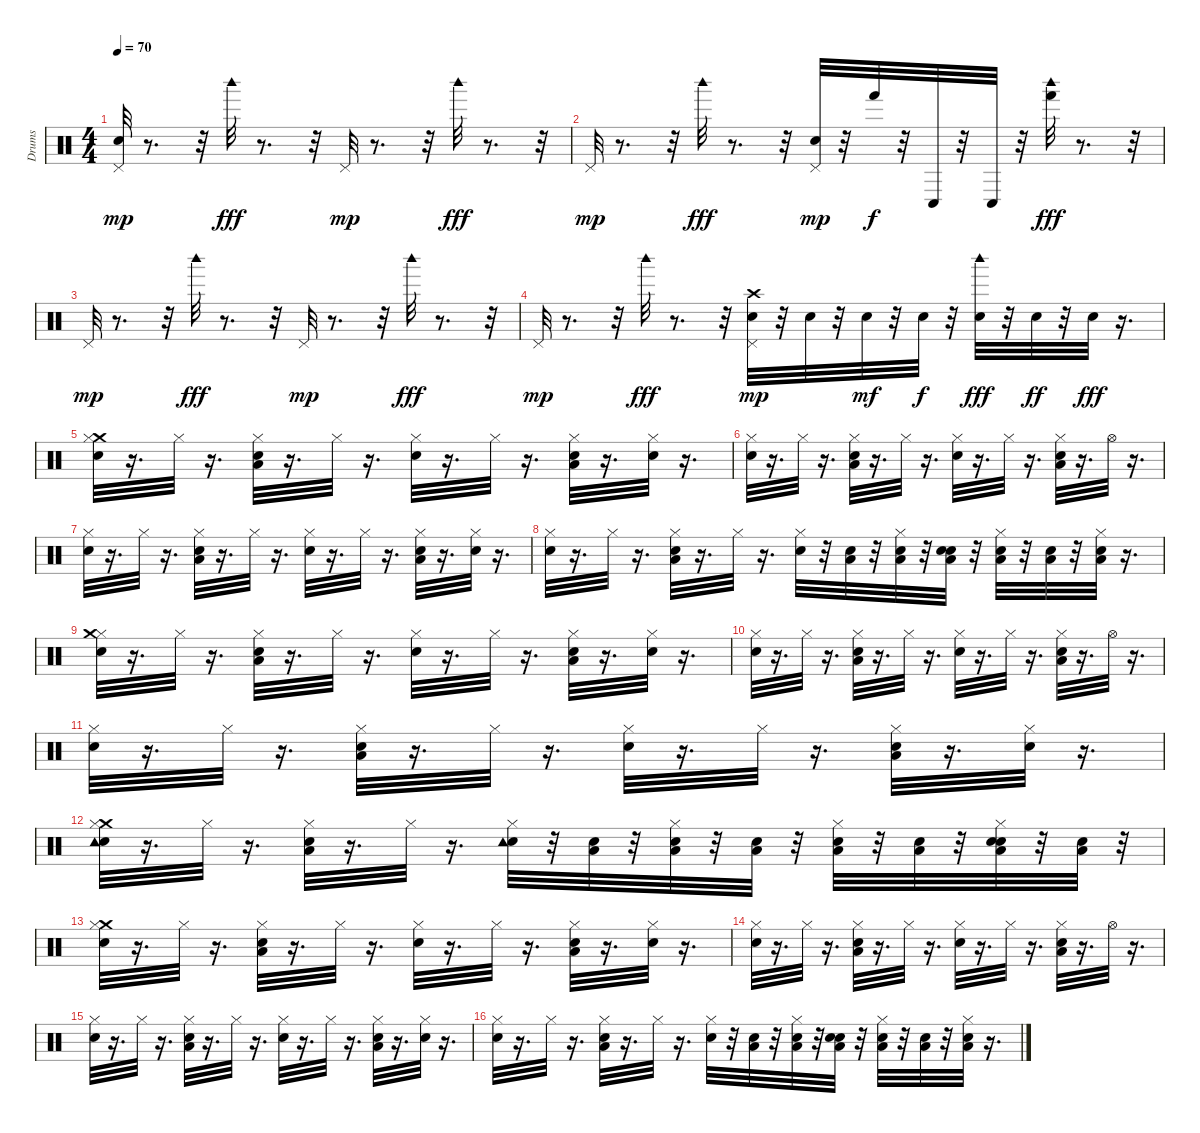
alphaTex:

\track ("Drums" "Drums") {instrument percussion}
\staff {score}
\articulation defaults
\ts (4 4)
\tempo 70
\clef neutral
\ks c
("Snare (hit)" "Pedal Hi-Hat (hit)").32{dy mp} r.8{d} r.32 "Woodblock high (hit)".32{dy fff} r.8{d} r.32 "Pedal Hi-Hat (hit)".32{dy mp} r.8{d} r.32 "Woodblock high (hit)".32{dy fff} r.8{d} r.32 |
"Pedal Hi-Hat (hit)".32{dy mp} r.8{d} r.32 "Woodblock high (hit)".32{dy fff} r.8{d} r.32 ("Snare (hit)" "Pedal Hi-Hat (hit)").32{dy mp} r.32 "Hand (hit)".32{dy f} r.32 "Conga low (hit)".32 r.32 "Conga low (hit)".32 r.32 ("Woodblock high (hit)" "Hand (hit)").32{dy fff} r.8{d} r.32 |
"Pedal Hi-Hat (hit)".32{dy mp} r.8{d} r.32 "Woodblock high (hit)".32{dy fff} r.8{d} r.32 "Pedal Hi-Hat (hit)".32{dy mp} r.8{d} r.32 "Woodblock high (hit)".32{dy fff} r.8{d} r.32 |
"Pedal Hi-Hat (hit)".32{dy mp} r.8{d} r.32 "Woodblock high (hit)".32{dy fff} r.8{d} r.32 ("Crash high (hit)" "Pedal Hi-Hat (hit)" "Snare (hit)").32{dy mp} r.32 "Snare (hit) 2".32 r.32 "Snare (hit) 2".32{dy mf} r.32 "Snare (hit) 2".32{dy f} r.32 ("Woodblock high (hit)" "Snare (hit) 2").32{dy fff} r.32 "Snare (hit) 2".32{dy ff} r.32 "Snare (hit) 2".32{dy fff} r.16{d} |
("Snare (hit)" "Crash medium (hit)" "Hi-Hat (closed)").32 r.16{d} "Hi-Hat (closed)".32 r.16{d} ("Snare (hit) 2" "Low Floor Tom (hit)" "Hi-Hat (closed)").32 r.16{d} "Hi-Hat (closed)".32 r.16{d} ("Hi-Hat (closed)" "Snare (hit)").32 r.16{d} "Hi-Hat (closed)".32 r.16{d} ("Snare (hit) 2" "Low Floor Tom (hit)" "Hi-Hat (closed)").32 r.16{d} ("Hi-Hat (closed)" "Snare (hit)").32 r.16{d} |
("Snare (hit)" "Hi-Hat (closed)").32 r.16{d} "Hi-Hat (closed)".32 r.16{d} ("Snare (hit) 2" "Low Floor Tom (hit)" "Hi-Hat (closed)").32 r.16{d} "Hi-Hat (closed)".32 r.16{d} ("Snare (hit)" "Hi-Hat (closed)").32 r.16{d} "Hi-Hat (closed)".32 r.16{d} ("Snare (hit) 2" "Low Floor Tom (hit)" "Hi-Hat (closed)").32 r.16{d} "Hi-Hat (open)".32 r.16{d} |
("Snare (hit)" "Hi-Hat (closed)").32 r.16{d} "Hi-Hat (closed)".32 r.16{d} ("Snare (hit) 2" "Low Floor Tom (hit)" "Hi-Hat (closed)").32 r.16{d} "Hi-Hat (closed)".32 r.16{d} ("Hi-Hat (closed)" "Snare (hit)").32 r.16{d} "Hi-Hat (closed)".32 r.16{d} ("Snare (hit) 2" "Low Floor Tom (hit)" "Hi-Hat (closed)").32 r.16{d} ("Snare (hit)" "Hi-Hat (closed)").32 r.16{d} |
("Snare (hit)" "Hi-Hat (closed)").32 r.16{d} "Hi-Hat (closed)".32 r.16{d} ("Snare (hit) 2" "Low Floor Tom (hit)" "Hi-Hat (closed)").32 r.16{d} "Hi-Hat (closed)".32 r.16{d} ("Snare (hit)" "Hi-Hat (closed)").32 r.32 ("Snare (hit) 2" "Low Floor Tom (hit)").32 r.32 ("Hi-Hat (closed)" "Snare (hit) 2" "Low Floor Tom (hit)").32 r.32 ("Snare (hit)" "Snare (hit) 2" "Low Floor Tom (hit)").32 r.32 ("Snare (hit) 2" "Low Floor Tom (hit)" "Hi-Hat (closed)").32 r.32 ("Snare (hit) 2" "Low Floor Tom (hit)").32 r.32 ("Hi-Hat (closed)" "Snare (hit) 2" "Low Floor Tom (hit)").32 r.16{d} |
("Hi-Hat (closed)" "Crash medium (hit)" "Snare (hit)").32 r.16{d} "Hi-Hat (closed)".32 r.16{d} ("Snare (hit) 2" "Low Floor Tom (hit)" "Hi-Hat (closed)").32 r.16{d} "Hi-Hat (closed)".32 r.16{d} ("Hi-Hat (closed)" "Snare (hit)").32 r.16{d} "Hi-Hat (closed)".32 r.16{d} ("Snare (hit) 2" "Low Floor Tom (hit)" "Hi-Hat (closed)").32 r.16{d} ("Hi-Hat (closed)" "Snare (hit)").32 r.16{d} |
("Snare (hit)" "Hi-Hat (closed)").32 r.16{d} "Hi-Hat (closed)".32 r.16{d} ("Snare (hit) 2" "Low Floor Tom (hit)" "Hi-Hat (closed)").32 r.16{d} "Hi-Hat (closed)".32 r.16{d} ("Snare (hit)" "Hi-Hat (closed)").32 r.16{d} "Hi-Hat (closed)".32 r.16{d} ("Snare (hit) 2" "Low Floor Tom (hit)" "Hi-Hat (closed)").32 r.16{d} "Hi-Hat (open)".32 r.16{d} |
("Snare (hit)" "Hi-Hat (closed)").32 r.16{d} "Hi-Hat (closed)".32 r.16{d} ("Snare (hit) 2" "Low Floor Tom (hit)" "Hi-Hat (closed)").32 r.16{d} "Hi-Hat (closed)".32 r.16{d} ("Hi-Hat (closed)" "Snare (hit)").32 r.16{d} "Hi-Hat (closed)".32 r.16{d} ("Hi-Hat (closed)" "Snare (hit) 2" "Low Floor Tom (hit)").32 r.16{d} ("Snare (hit)" "Hi-Hat (closed)").32 r.16{d} |
("Snare (hit)" "Crash medium (hit)" "Hi-Hat (closed)" "Tambourine (hit)").32 r.16{d} "Hi-Hat (closed)".32 r.16{d} ("Snare (hit) 2" "Low Floor Tom (hit)" "Hi-Hat (closed)").32 r.16{d} "Hi-Hat (closed)".32 r.16{d} ("Hi-Hat (closed)" "Snare (hit)" "Tambourine (hit)").32 r.32 ("Low Floor Tom (hit)" "Snare (hit) 2").32 r.32 ("Snare (hit) 2" "Low Floor Tom (hit)" "Hi-Hat (closed)").32 r.32 ("Snare (hit) 2" "Low Floor Tom (hit)").32 r.32 ("Snare (hit) 2" "Low Floor Tom (hit)" "Hi-Hat (closed)").32 r.32 ("Snare (hit) 2" "Low Floor Tom (hit)").32 r.32 ("Hi-Hat (closed)" "Snare (hit)" "Snare (hit) 2" "Low Floor Tom (hit)").32 r.32 ("Low Floor Tom (hit)" "Snare (hit) 2").32 r.32 |
("Snare (hit)" "Crash medium (hit)" "Hi-Hat (closed)").32 r.16{d} "Hi-Hat (closed)".32 r.16{d} ("Snare (hit) 2" "Low Floor Tom (hit)" "Hi-Hat (closed)").32 r.16{d} "Hi-Hat (closed)".32 r.16{d} ("Hi-Hat (closed)" "Snare (hit)").32 r.16{d} "Hi-Hat (closed)".32 r.16{d} ("Snare (hit) 2" "Low Floor Tom (hit)" "Hi-Hat (closed)").32 r.16{d} ("Hi-Hat (closed)" "Snare (hit)").32 r.16{d} |
("Snare (hit)" "Hi-Hat (closed)").32 r.16{d} "Hi-Hat (closed)".32 r.16{d} ("Snare (hit) 2" "Low Floor Tom (hit)" "Hi-Hat (closed)").32 r.16{d} "Hi-Hat (closed)".32 r.16{d} ("Snare (hit)" "Hi-Hat (closed)").32 r.16{d} "Hi-Hat (closed)".32 r.16{d} ("Snare (hit) 2" "Low Floor Tom (hit)" "Hi-Hat (closed)").32 r.16{d} "Hi-Hat (open)".32 r.16{d} |
("Snare (hit)" "Hi-Hat (closed)").32 r.16{d} "Hi-Hat (closed)".32 r.16{d} ("Snare (hit) 2" "Low Floor Tom (hit)" "Hi-Hat (closed)").32 r.16{d} "Hi-Hat (closed)".32 r.16{d} ("Hi-Hat (closed)" "Snare (hit)").32 r.16{d} "Hi-Hat (closed)".32 r.16{d} ("Snare (hit) 2" "Low Floor Tom (hit)" "Hi-Hat (closed)").32 r.16{d} ("Snare (hit)" "Hi-Hat (closed)").32 r.16{d} |
("Snare (hit)" "Hi-Hat (closed)").32 r.16{d} "Hi-Hat (closed)".32 r.16{d} ("Snare (hit) 2" "Low Floor Tom (hit)" "Hi-Hat (closed)").32 r.16{d} "Hi-Hat (closed)".32 r.16{d} ("Snare (hit)" "Hi-Hat (closed)").32 r.32 ("Snare (hit) 2" "Low Floor Tom (hit)").32 r.32 ("Hi-Hat (closed)" "Snare (hit) 2" "Low Floor Tom (hit)").32 r.32 ("Snare (hit)" "Snare (hit) 2" "Low Floor Tom (hit)").32 r.32 ("Snare (hit) 2" "Low Floor Tom (hit)" "Hi-Hat (closed)").32 r.32 ("Snare (hit) 2" "Low Floor Tom (hit)").32 r.32 ("Hi-Hat (closed)" "Snare (hit) 2" "Low Floor Tom (hit)").32 r.16{d}
